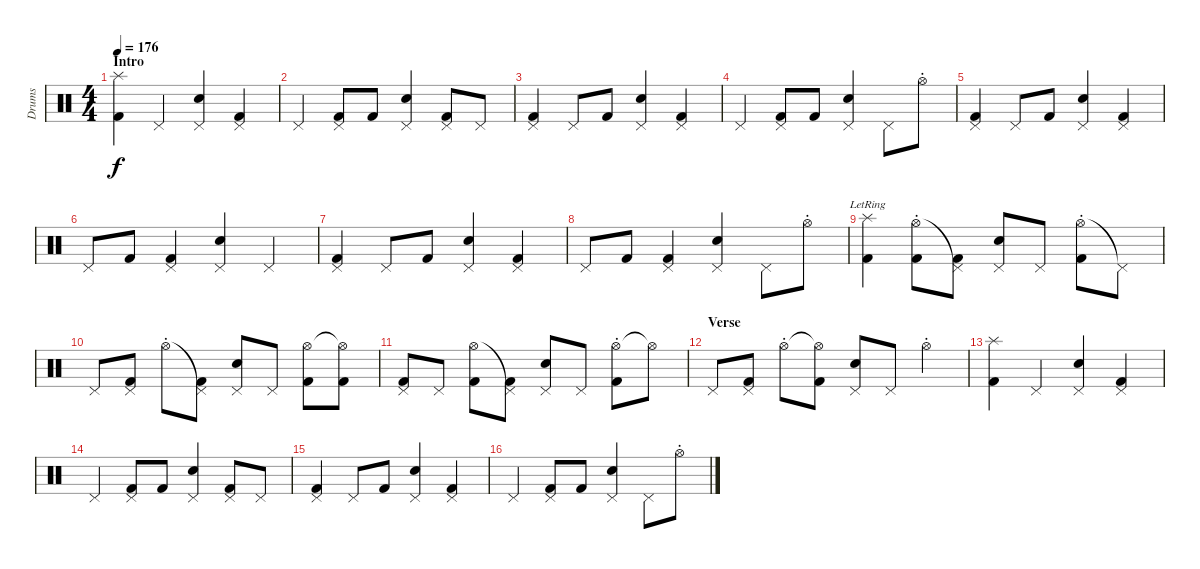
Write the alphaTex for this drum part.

\track ("Drums" "Drums") {instrument percussion}
\staff {score}
\articulation defaults
\ts (4 4)
\section ("" "Intro")
\tempo 176
\clef neutral
\ks c
("Splash (hit)" "Kick (hit) 2").4{dy f} "Pedal Hi-Hat (hit)".4 ("Pedal Hi-Hat (hit)" "Electric Snare (hit)").4 ("Pedal Hi-Hat (hit)" "Kick (hit) 2").4 |
"Pedal Hi-Hat (hit)".4 ("Pedal Hi-Hat (hit)" "Kick (hit) 2").8 "Kick (hit) 2".8 ("Pedal Hi-Hat (hit)" "Electric Snare (hit)").4 ("Kick (hit) 2" "Pedal Hi-Hat (hit)").8 "Pedal Hi-Hat (hit)".8 |
("Pedal Hi-Hat (hit)" "Kick (hit) 2").4 "Pedal Hi-Hat (hit)".8 "Kick (hit) 2".8 ("Pedal Hi-Hat (hit)" "Electric Snare (hit)").4 ("Pedal Hi-Hat (hit)" "Kick (hit) 2").4 |
"Pedal Hi-Hat (hit)".4 ("Pedal Hi-Hat (hit)" "Kick (hit) 2").8 "Kick (hit) 2".8 ("Pedal Hi-Hat (hit)" "Electric Snare (hit)").4 "Pedal Hi-Hat (hit)".8 "Hi-Hat (open)"{st}.8 |
("Pedal Hi-Hat (hit)" "Kick (hit) 2").4 "Pedal Hi-Hat (hit)".8 "Kick (hit) 2".8 ("Pedal Hi-Hat (hit)" "Electric Snare (hit)").4 ("Pedal Hi-Hat (hit)" "Kick (hit) 2").4 |
"Pedal Hi-Hat (hit)".8 "Kick (hit) 2".8 ("Pedal Hi-Hat (hit)" "Kick (hit) 2").4 ("Pedal Hi-Hat (hit)" "Electric Snare (hit)").4 "Pedal Hi-Hat (hit)".4 |
("Pedal Hi-Hat (hit)" "Kick (hit) 2").4 "Pedal Hi-Hat (hit)".8 "Kick (hit) 2".8 ("Pedal Hi-Hat (hit)" "Electric Snare (hit)").4 ("Pedal Hi-Hat (hit)" "Kick (hit) 2").4 |
"Pedal Hi-Hat (hit)".8 "Kick (hit) 2".8 ("Kick (hit) 2" "Pedal Hi-Hat (hit)").4 ("Pedal Hi-Hat (hit)" "Electric Snare (hit)").4 "Pedal Hi-Hat (hit)".8 "Hi-Hat (open)"{st}.8 |
("Kick (hit) 2"{lr} "Splash (hit)").4 ("Hi-Hat (open)"{st} "Kick (hit) 2").8 ("Pedal Hi-Hat (hit)"{t} "Kick (hit) 2").8 ("Pedal Hi-Hat (hit)" "Electric Snare (hit)").8 "Pedal Hi-Hat (hit)".8 ("Hi-Hat (open)"{st} "Kick (hit) 2").8 "Pedal Hi-Hat (hit)"{t}.8 |
"Pedal Hi-Hat (hit)".8 ("Pedal Hi-Hat (hit)" "Kick (hit) 2").8 "Hi-Hat (open)"{st}.8 ("Pedal Hi-Hat (hit)"{t} "Kick (hit) 2").8 ("Pedal Hi-Hat (hit)" "Electric Snare (hit)").8 "Pedal Hi-Hat (hit)".8 ("Hi-Hat (open)" "Kick (hit) 2").8 ("Hi-Hat (open)"{t} "Kick (hit) 2").8 |
("Kick (hit) 2" "Pedal Hi-Hat (hit)").8 "Pedal Hi-Hat (hit)".8 ("Hi-Hat (open)" "Kick (hit) 2").8 ("Pedal Hi-Hat (hit)"{t} "Kick (hit) 2").8 ("Pedal Hi-Hat (hit)" "Electric Snare (hit)").8 "Pedal Hi-Hat (hit)".8 ("Hi-Hat (open)"{st} "Kick (hit) 2").8 "Hi-Hat (open)"{t}.8 |
\section ("" "Verse")
"Pedal Hi-Hat (hit)".8 ("Pedal Hi-Hat (hit)" "Kick (hit) 2").8 "Hi-Hat (open)"{st}.8 ("Hi-Hat (open)"{t} "Kick (hit) 2").8 ("Pedal Hi-Hat (hit)" "Electric Snare (hit)").8 "Pedal Hi-Hat (hit)".8 "Hi-Hat (open)"{st}.4 |
("Splash (hit)" "Kick (hit) 2").4 "Pedal Hi-Hat (hit)".4 ("Pedal Hi-Hat (hit)" "Electric Snare (hit)").4 ("Pedal Hi-Hat (hit)" "Kick (hit) 2").4 |
"Pedal Hi-Hat (hit)".4 ("Pedal Hi-Hat (hit)" "Kick (hit) 2").8 "Kick (hit) 2".8 ("Pedal Hi-Hat (hit)" "Electric Snare (hit)").4 ("Kick (hit) 2" "Pedal Hi-Hat (hit)").8 "Pedal Hi-Hat (hit)".8 |
("Pedal Hi-Hat (hit)" "Kick (hit) 2").4 "Pedal Hi-Hat (hit)".8 "Kick (hit) 2".8 ("Pedal Hi-Hat (hit)" "Electric Snare (hit)").4 ("Pedal Hi-Hat (hit)" "Kick (hit) 2").4 |
"Pedal Hi-Hat (hit)".4 ("Pedal Hi-Hat (hit)" "Kick (hit) 2").8 "Kick (hit) 2".8 ("Pedal Hi-Hat (hit)" "Electric Snare (hit)").4 "Pedal Hi-Hat (hit)".8 "Hi-Hat (open)"{st}.8
